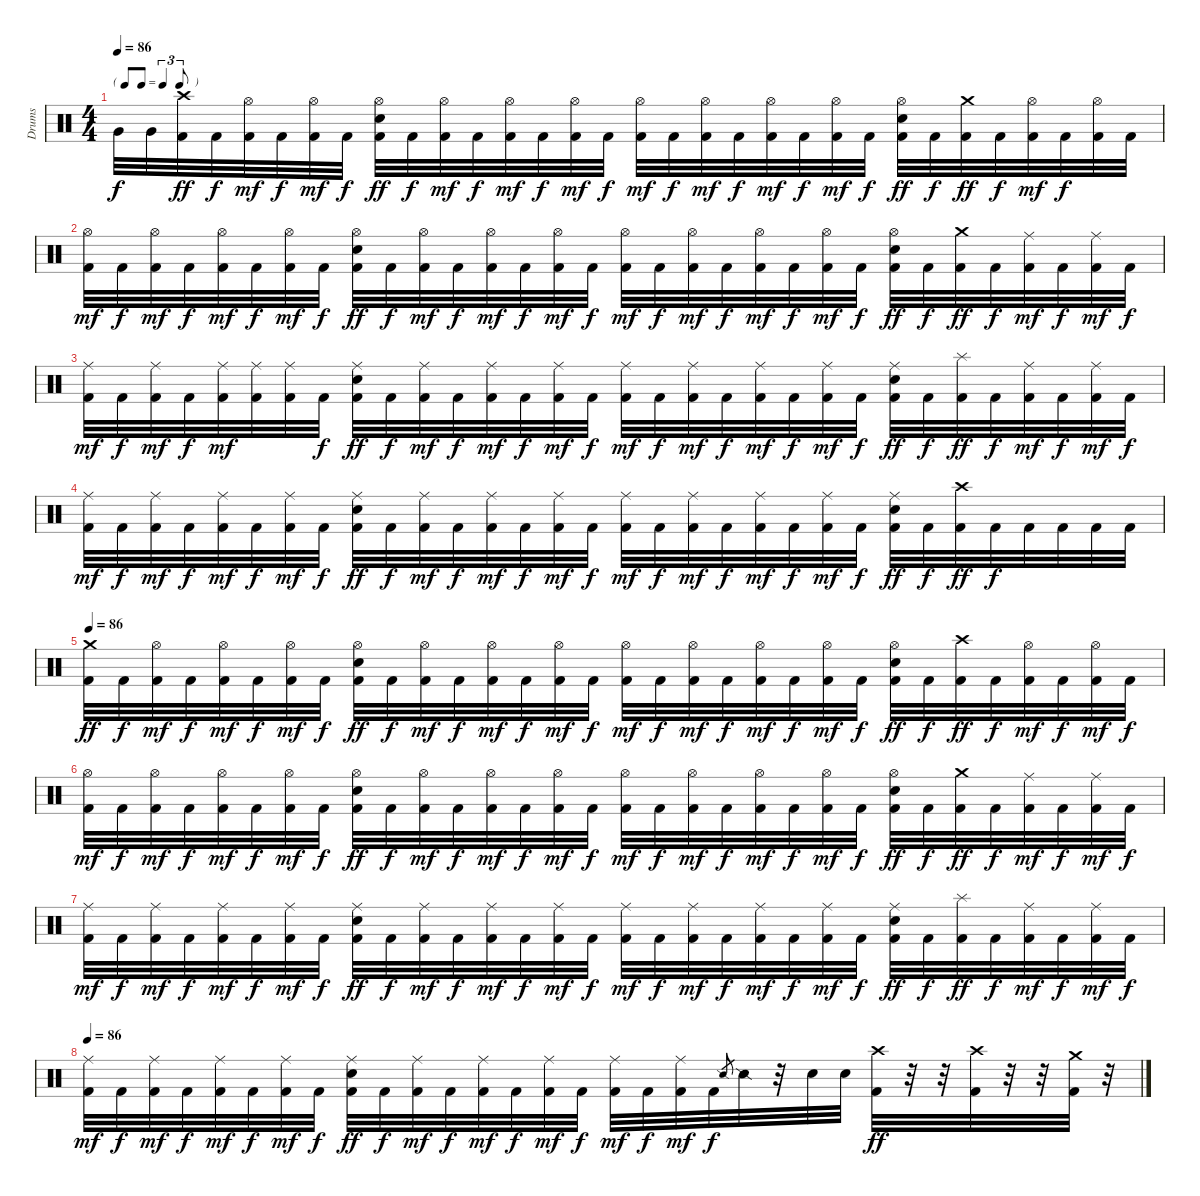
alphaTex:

\track ("Drums" "Drums") {instrument percussion}
\staff {score}
\articulation defaults
\ts (4 4)
\tf triplet8th
\tempo 86
\clef neutral
\ks c "Very Low Tom (hit)".32{dy f} "Very Low Tom (hit)".32
("Crash high (hit)" "Kick (hit) 2").32{dy ff} "Kick (hit) 2".32{dy f} ("Hi-Hat (open)" "Kick (hit) 2").32{dy mf} "Kick (hit) 2".32{dy f} ("Hi-Hat (open)" "Kick (hit) 2").32{dy mf} "Kick (hit) 2".32{dy f} ("Hi-Hat (open)" "Electric Snare (hit)" "Kick (hit) 2").32{dy ff} "Kick (hit) 2".32{dy f} ("Hi-Hat (open)" "Kick (hit) 2").32{dy mf} "Kick (hit) 2".32{dy f} ("Hi-Hat (open)" "Kick (hit) 2").32{dy mf} "Kick (hit) 2".32{dy f} ("Hi-Hat (open)" "Kick (hit) 2").32{dy mf} "Kick (hit) 2".32{dy f} ("Hi-Hat (open)" "Kick (hit) 2").32{dy mf} "Kick (hit) 2".32{dy f} ("Hi-Hat (open)" "Kick (hit) 2").32{dy mf} "Kick (hit) 2".32{dy f} ("Hi-Hat (open)" "Kick (hit) 2").32{dy mf} "Kick (hit) 2".32{dy f} ("Hi-Hat (open)" "Kick (hit) 2").32{dy mf} "Kick (hit) 2".32{dy f} ("Hi-Hat (open)" "Electric Snare (hit)" "Kick (hit) 2").32{dy ff} "Kick (hit) 2".32{dy f} ("Crash medium (hit)" "Kick (hit) 2").32{dy ff} "Kick (hit) 2".32{dy f} ("Hi-Hat (open)" "Kick (hit) 2").32{dy mf} "Kick (hit) 2".32{dy f} ("Hi-Hat (open)" "Kick (hit) 2").32 "Kick (hit) 2".32 |
("Hi-Hat (open)" "Kick (hit) 2").32{dy mf} "Kick (hit) 2".32{dy f} ("Hi-Hat (open)" "Kick (hit) 2").32{dy mf} "Kick (hit) 2".32{dy f} ("Hi-Hat (open)" "Kick (hit) 2").32{dy mf} "Kick (hit) 2".32{dy f} ("Hi-Hat (open)" "Kick (hit) 2").32{dy mf} "Kick (hit) 2".32{dy f} ("Hi-Hat (open)" "Electric Snare (hit)" "Kick (hit) 2").32{dy ff} "Kick (hit) 2".32{dy f} ("Hi-Hat (open)" "Kick (hit) 2").32{dy mf} "Kick (hit) 2".32{dy f} ("Hi-Hat (open)" "Kick (hit) 2").32{dy mf} "Kick (hit) 2".32{dy f} ("Hi-Hat (open)" "Kick (hit) 2").32{dy mf} "Kick (hit) 2".32{dy f} ("Hi-Hat (open)" "Kick (hit) 2").32{dy mf} "Kick (hit) 2".32{dy f} ("Hi-Hat (open)" "Kick (hit) 2").32{dy mf} "Kick (hit) 2".32{dy f} ("Hi-Hat (open)" "Kick (hit) 2").32{dy mf} "Kick (hit) 2".32{dy f} ("Hi-Hat (open)" "Kick (hit) 2").32{dy mf} "Kick (hit) 2".32{dy f} ("Hi-Hat (open)" "Electric Snare (hit)" "Kick (hit) 2").32{dy ff} "Kick (hit) 2".32{dy f} ("Crash medium (hit)" "Kick (hit) 2").32{dy ff} "Kick (hit) 2".32{dy f} ("Ride (middle)" "Kick (hit) 2").32{dy mf} "Kick (hit) 2".32{dy f} ("Ride (middle)" "Kick (hit) 2").32{dy mf} "Kick (hit) 2".32{dy f} |
("Ride (middle)" "Kick (hit) 2").32{dy mf} "Kick (hit) 2".32{dy f} ("Ride (middle)" "Kick (hit) 2").32{dy mf} "Kick (hit) 2".32{dy f} ("Ride (middle)" "Kick (hit) 2").32{dy mf} ("Ride (middle)" "Kick (hit) 2").32 ("Ride (middle)" "Kick (hit) 2").32 "Kick (hit) 2".32{dy f} ("Ride (middle)" "Electric Snare (hit)" "Kick (hit) 2").32{dy ff} "Kick (hit) 2".32{dy f} ("Ride (middle)" "Kick (hit) 2").32{dy mf} "Kick (hit) 2".32{dy f} ("Ride (middle)" "Kick (hit) 2").32{dy mf} "Kick (hit) 2".32{dy f} ("Ride (middle)" "Kick (hit) 2").32{dy mf} "Kick (hit) 2".32{dy f} ("Ride (middle)" "Kick (hit) 2").32{dy mf} "Kick (hit) 2".32{dy f} ("Ride (middle)" "Kick (hit) 2").32{dy mf} "Kick (hit) 2".32{dy f} ("Ride (middle)" "Kick (hit) 2").32{dy mf} "Kick (hit) 2".32{dy f} ("Ride (middle)" "Kick (hit) 2").32{dy mf} "Kick (hit) 2".32{dy f} ("Ride (middle)" "Electric Snare (hit)" "Kick (hit) 2").32{dy ff} "Kick (hit) 2".32{dy f} ("Splash (hit)" "Kick (hit) 2").32{dy ff} "Kick (hit) 2".32{dy f} ("Ride (middle)" "Kick (hit) 2").32{dy mf} "Kick (hit) 2".32{dy f} ("Ride (middle)" "Kick (hit) 2").32{dy mf} "Kick (hit) 2".32{dy f} |
("Ride (middle)" "Kick (hit) 2").32{dy mf} "Kick (hit) 2".32{dy f} ("Ride (middle)" "Kick (hit) 2").32{dy mf} "Kick (hit) 2".32{dy f} ("Ride (middle)" "Kick (hit) 2").32{dy mf} "Kick (hit) 2".32{dy f} ("Ride (middle)" "Kick (hit) 2").32{dy mf} "Kick (hit) 2".32{dy f} ("Ride (middle)" "Electric Snare (hit)" "Kick (hit) 2").32{dy ff} "Kick (hit) 2".32{dy f} ("Ride (middle)" "Kick (hit) 2").32{dy mf} "Kick (hit) 2".32{dy f} ("Ride (middle)" "Kick (hit) 2").32{dy mf} "Kick (hit) 2".32{dy f} ("Ride (middle)" "Kick (hit) 2").32{dy mf} "Kick (hit) 2".32{dy f} ("Ride (middle)" "Kick (hit) 2").32{dy mf} "Kick (hit) 2".32{dy f} ("Ride (middle)" "Kick (hit) 2").32{dy mf} "Kick (hit) 2".32{dy f} ("Ride (middle)" "Kick (hit) 2").32{dy mf} "Kick (hit) 2".32{dy f} ("Ride (middle)" "Kick (hit) 2").32{dy mf} "Kick (hit) 2".32{dy f} ("Ride (middle)" "Electric Snare (hit)" "Kick (hit) 2").32{dy ff} "Kick (hit) 2".32{dy f} ("Crash high (hit)" "Kick (hit) 2").32{dy ff} "Kick (hit) 2".32{dy f} "Kick (hit) 2".32 "Kick (hit) 2".32 "Kick (hit) 2".32 "Kick (hit) 2".32 |
\tempo 86
("Crash medium (hit)" "Kick (hit) 2").32{dy ff} "Kick (hit) 2".32{dy f} ("Hi-Hat (open)" "Kick (hit) 2").32{dy mf} "Kick (hit) 2".32{dy f} ("Hi-Hat (open)" "Kick (hit) 2").32{dy mf} "Kick (hit) 2".32{dy f} ("Hi-Hat (open)" "Kick (hit) 2").32{dy mf} "Kick (hit) 2".32{dy f} ("Hi-Hat (open)" "Electric Snare (hit)" "Kick (hit) 2").32{dy ff} "Kick (hit) 2".32{dy f} ("Hi-Hat (open)" "Kick (hit) 2").32{dy mf} "Kick (hit) 2".32{dy f} ("Hi-Hat (open)" "Kick (hit) 2").32{dy mf} "Kick (hit) 2".32{dy f} ("Hi-Hat (open)" "Kick (hit) 2").32{dy mf} "Kick (hit) 2".32{dy f} ("Hi-Hat (open)" "Kick (hit) 2").32{dy mf} "Kick (hit) 2".32{dy f} ("Hi-Hat (open)" "Kick (hit) 2").32{dy mf} "Kick (hit) 2".32{dy f} ("Hi-Hat (open)" "Kick (hit) 2").32{dy mf} "Kick (hit) 2".32{dy f} ("Hi-Hat (open)" "Kick (hit) 2").32{dy mf} "Kick (hit) 2".32{dy f} ("Hi-Hat (open)" "Electric Snare (hit)" "Kick (hit) 2").32{dy ff} "Kick (hit) 2".32{dy f} ("Crash high (hit)" "Kick (hit) 2").32{dy ff} "Kick (hit) 2".32{dy f} ("Hi-Hat (open)" "Kick (hit) 2").32{dy mf} "Kick (hit) 2".32{dy f} ("Hi-Hat (open)" "Kick (hit) 2").32{dy mf} "Kick (hit) 2".32{dy f} |
("Hi-Hat (open)" "Kick (hit) 2").32{dy mf} "Kick (hit) 2".32{dy f} ("Hi-Hat (open)" "Kick (hit) 2").32{dy mf} "Kick (hit) 2".32{dy f} ("Hi-Hat (open)" "Kick (hit) 2").32{dy mf} "Kick (hit) 2".32{dy f} ("Hi-Hat (open)" "Kick (hit) 2").32{dy mf} "Kick (hit) 2".32{dy f} ("Hi-Hat (open)" "Electric Snare (hit)" "Kick (hit) 2").32{dy ff} "Kick (hit) 2".32{dy f} ("Hi-Hat (open)" "Kick (hit) 2").32{dy mf} "Kick (hit) 2".32{dy f} ("Hi-Hat (open)" "Kick (hit) 2").32{dy mf} "Kick (hit) 2".32{dy f} ("Hi-Hat (open)" "Kick (hit) 2").32{dy mf} "Kick (hit) 2".32{dy f} ("Hi-Hat (open)" "Kick (hit) 2").32{dy mf} "Kick (hit) 2".32{dy f} ("Hi-Hat (open)" "Kick (hit) 2").32{dy mf} "Kick (hit) 2".32{dy f} ("Hi-Hat (open)" "Kick (hit) 2").32{dy mf} "Kick (hit) 2".32{dy f} ("Hi-Hat (open)" "Kick (hit) 2").32{dy mf} "Kick (hit) 2".32{dy f} ("Hi-Hat (open)" "Electric Snare (hit)" "Kick (hit) 2").32{dy ff} "Kick (hit) 2".32{dy f} ("Crash medium (hit)" "Kick (hit) 2").32{dy ff} "Kick (hit) 2".32{dy f} ("Ride (middle)" "Kick (hit) 2").32{dy mf} "Kick (hit) 2".32{dy f} ("Ride (middle)" "Kick (hit) 2").32{dy mf} "Kick (hit) 2".32{dy f} |
("Ride (middle)" "Kick (hit) 2").32{dy mf} "Kick (hit) 2".32{dy f} ("Ride (middle)" "Kick (hit) 2").32{dy mf} "Kick (hit) 2".32{dy f} ("Ride (middle)" "Kick (hit) 2").32{dy mf} "Kick (hit) 2".32{dy f} ("Ride (middle)" "Kick (hit) 2").32{dy mf} "Kick (hit) 2".32{dy f} ("Ride (middle)" "Electric Snare (hit)" "Kick (hit) 2").32{dy ff} "Kick (hit) 2".32{dy f} ("Ride (middle)" "Kick (hit) 2").32{dy mf} "Kick (hit) 2".32{dy f} ("Ride (middle)" "Kick (hit) 2").32{dy mf} "Kick (hit) 2".32{dy f} ("Ride (middle)" "Kick (hit) 2").32{dy mf} "Kick (hit) 2".32{dy f} ("Ride (middle)" "Kick (hit) 2").32{dy mf} "Kick (hit) 2".32{dy f} ("Ride (middle)" "Kick (hit) 2").32{dy mf} "Kick (hit) 2".32{dy f} ("Ride (middle)" "Kick (hit) 2").32{dy mf} "Kick (hit) 2".32{dy f} ("Ride (middle)" "Kick (hit) 2").32{dy mf} "Kick (hit) 2".32{dy f} ("Ride (middle)" "Electric Snare (hit)" "Kick (hit) 2").32{dy ff} "Kick (hit) 2".32{dy f} ("Splash (hit)" "Kick (hit) 2").32{dy ff} "Kick (hit) 2".32{dy f} ("Ride (middle)" "Kick (hit) 2").32{dy mf} "Kick (hit) 2".32{dy f} ("Ride (middle)" "Kick (hit) 2").32{dy mf} "Kick (hit) 2".32{dy f} |
\tempo 86
("Ride (middle)" "Kick (hit) 2").32{dy mf} "Kick (hit) 2".32{dy f} ("Ride (middle)" "Kick (hit) 2").32{dy mf} "Kick (hit) 2".32{dy f} ("Ride (middle)" "Kick (hit) 2").32{dy mf} "Kick (hit) 2".32{dy f} ("Ride (middle)" "Kick (hit) 2").32{dy mf} "Kick (hit) 2".32{dy f} ("Ride (middle)" "Electric Snare (hit)" "Kick (hit) 2").32{dy ff} "Kick (hit) 2".32{dy f} ("Ride (middle)" "Kick (hit) 2").32{dy mf} "Kick (hit) 2".32{dy f} ("Ride (middle)" "Kick (hit) 2").32{dy mf} "Kick (hit) 2".32{dy f} ("Ride (middle)" "Kick (hit) 2").32{dy mf} "Kick (hit) 2".32{dy f} ("Ride (middle)" "Kick (hit) 2").32{dy mf} "Kick (hit) 2".32{dy f} ("Ride (middle)" "Kick (hit) 2").32{dy mf} "Kick (hit) 2".32{dy f} "Snare (side stick) 2".8{gr} "Snare (side stick) 2".32 r.32 "Electric Snare (hit)".32 "Electric Snare (hit)".32 ("Crash high (hit)" "Kick (hit) 2").32{dy ff} r.32 r.32 ("Crash high (hit)" "Kick (hit) 2").32 r.32 r.32 ("Crash medium (hit)" "Kick (hit) 2").32 r.32
